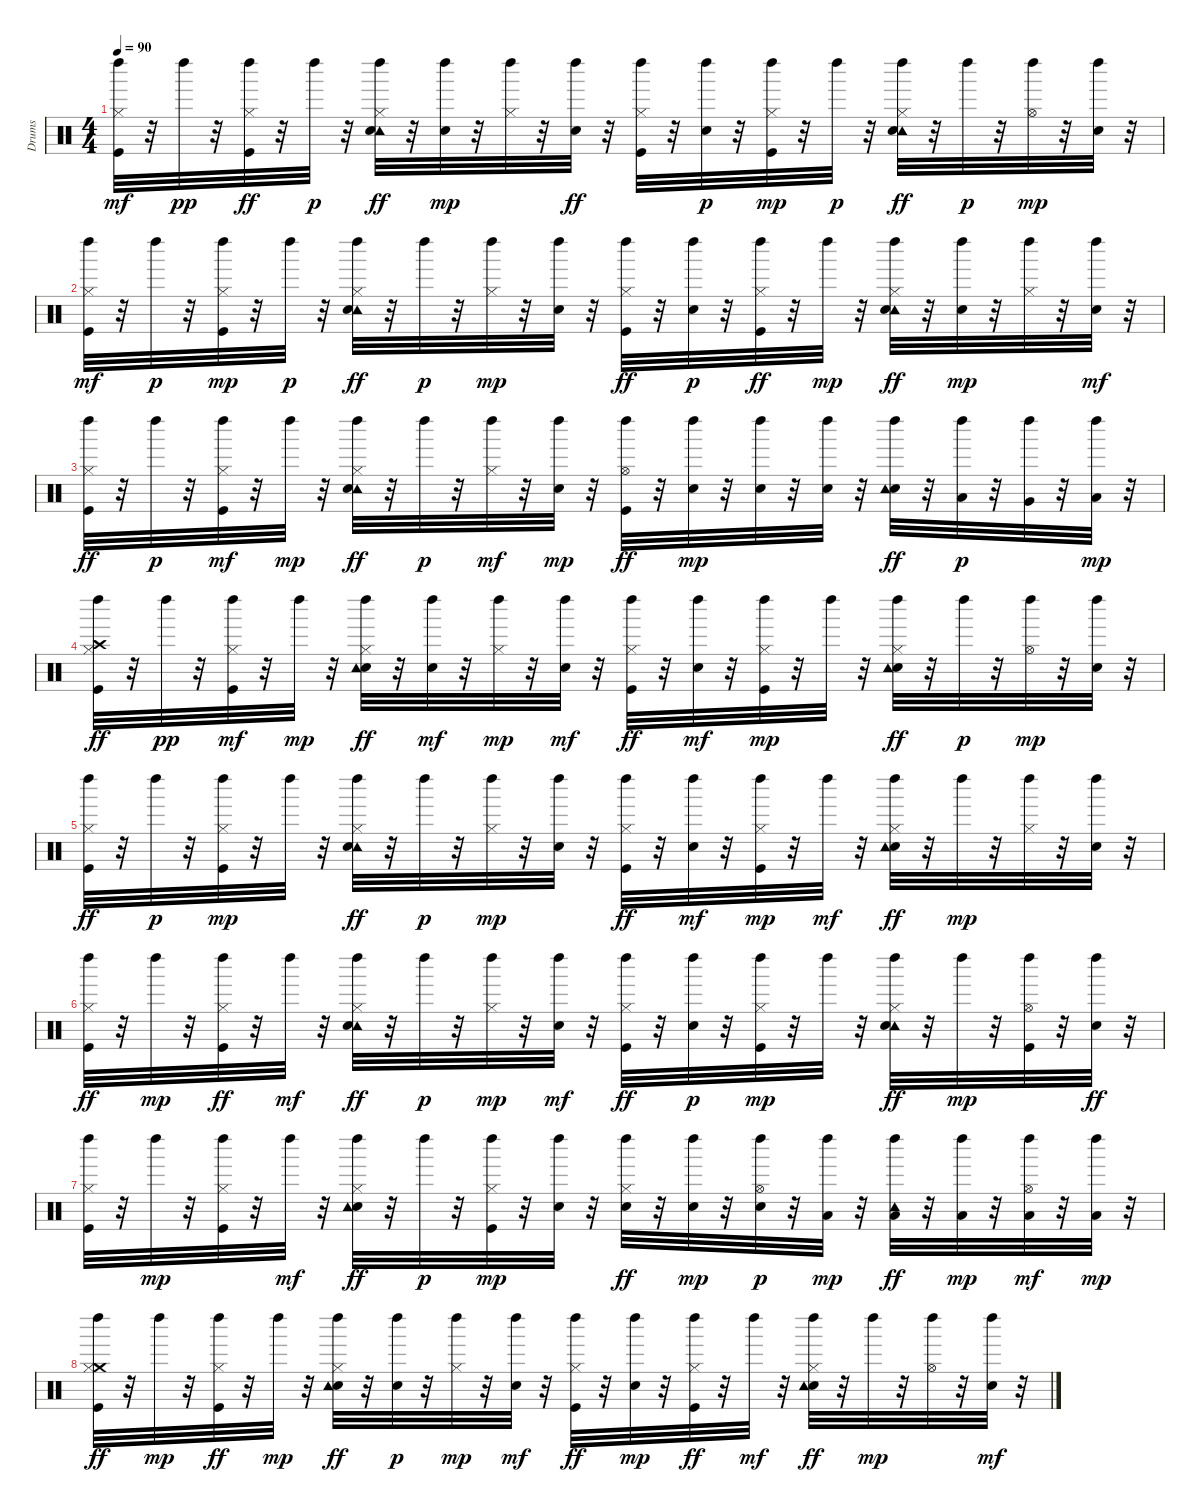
\track ("Drums" "Drums") {instrument percussion}
\staff {score}
\articulation defaults
\ts (4 4)
\tempo 90
\clef neutral
\ks c
("Kick (hit)" "Left Maraca (hit)" "Hi-Hat (closed)").32{dy mf} r.32 "Left Maraca (hit)".32{dy pp} r.32 ("Hi-Hat (closed)" "Left Maraca (hit)" "Kick (hit)").32{dy ff} r.32 "Left Maraca (hit)".32{dy p} r.32 ("Tambourine (hit)" "Left Maraca (hit)" "Hi-Hat (closed)" "Electric Snare (hit)").32{dy ff} r.32 ("Left Maraca (hit)" "Electric Snare (hit)").32{dy mp} r.32 ("Hi-Hat (closed)" "Left Maraca (hit)").32 r.32 ("Left Maraca (hit)" "Electric Snare (hit)").32{dy ff} r.32 ("Hi-Hat (closed)" "Left Maraca (hit)" "Kick (hit)").32 r.32 ("Left Maraca (hit)" "Electric Snare (hit)").32{dy p} r.32 ("Hi-Hat (closed)" "Kick (hit)" "Left Maraca (hit)").32{dy mp} r.32 "Left Maraca (hit)".32{dy p} r.32 ("Tambourine (hit)" "Electric Snare (hit)" "Left Maraca (hit)" "Hi-Hat (closed)").32{dy ff} r.32 "Left Maraca (hit)".32{dy p} r.32 ("Hi-Hat (open)" "Left Maraca (hit)").32{dy mp} r.32 ("Electric Snare (hit)" "Left Maraca (hit)").32 r.32 |
("Kick (hit)" "Hi-Hat (closed)" "Left Maraca (hit)").32{dy mf} r.32 "Left Maraca (hit)".32{dy p} r.32 ("Hi-Hat (closed)" "Kick (hit)" "Left Maraca (hit)").32{dy mp} r.32 "Left Maraca (hit)".32{dy p} r.32 ("Tambourine (hit)" "Hi-Hat (closed)" "Electric Snare (hit)" "Left Maraca (hit)").32{dy ff} r.32 "Left Maraca (hit)".32{dy p} r.32 ("Hi-Hat (closed)" "Left Maraca (hit)").32{dy mp} r.32 ("Electric Snare (hit)" "Left Maraca (hit)").32 r.32 ("Kick (hit)" "Hi-Hat (closed)" "Left Maraca (hit)").32{dy ff} r.32 ("Left Maraca (hit)" "Electric Snare (hit)").32{dy p} r.32 ("Left Maraca (hit)" "Hi-Hat (closed)" "Kick (hit)").32{dy ff} r.32 "Left Maraca (hit)".32{dy mp} r.32 ("Tambourine (hit)" "Left Maraca (hit)" "Hi-Hat (closed)" "Electric Snare (hit)").32{dy ff} r.32 ("Left Maraca (hit)" "Electric Snare (hit)").32{dy mp} r.32 ("Hi-Hat (closed)" "Left Maraca (hit)").32 r.32 ("Electric Snare (hit)" "Left Maraca (hit)").32{dy mf} r.32 |
("Hi-Hat (closed)" "Kick (hit)" "Left Maraca (hit)").32{dy ff} r.32 "Left Maraca (hit)".32{dy p} r.32 ("Hi-Hat (closed)" "Kick (hit)" "Left Maraca (hit)").32{dy mf} r.32 "Left Maraca (hit)".32{dy mp} r.32 ("Tambourine (hit)" "Hi-Hat (closed)" "Electric Snare (hit)" "Left Maraca (hit)").32{dy ff} r.32 "Left Maraca (hit)".32{dy p} r.32 ("Hi-Hat (closed)" "Left Maraca (hit)").32{dy mf} r.32 ("Electric Snare (hit)" "Left Maraca (hit)").32{dy mp} r.32 ("Hi-Hat (open)" "Kick (hit)" "Left Maraca (hit)").32{dy ff} r.32 ("Electric Snare (hit)" "Left Maraca (hit)").32{dy mp} r.32 ("Electric Snare (hit)" "Left Maraca (hit)").32 r.32 ("Left Maraca (hit)" "Electric Snare (hit)").32 r.32 ("Electric Snare (hit)" "Tambourine (hit)" "Left Maraca (hit)").32{dy ff} r.32 ("Low Tom (hit)" "Left Maraca (hit)").32{dy p} r.32 ("Very Low Tom (hit)" "Left Maraca (hit)").32 r.32 ("Low Floor Tom (hit)" "Left Maraca (hit)").32{dy mp} r.32 |
("Left Maraca (hit)" "Kick (hit)" "Crash high (hit)" "Hi-Hat (closed)").32{dy ff} r.32 "Left Maraca (hit)".32{dy pp} r.32 ("Kick (hit)" "Left Maraca (hit)" "Hi-Hat (closed)").32{dy mf} r.32 "Left Maraca (hit)".32{dy mp} r.32 ("Electric Snare (hit)" "Left Maraca (hit)" "Hi-Hat (closed)" "Tambourine (hit)").32{dy ff} r.32 ("Left Maraca (hit)" "Electric Snare (hit)").32{dy mf} r.32 ("Hi-Hat (closed)" "Left Maraca (hit)").32{dy mp} r.32 ("Electric Snare (hit)" "Left Maraca (hit)").32{dy mf} r.32 ("Hi-Hat (closed)" "Kick (hit)" "Left Maraca (hit)").32{dy ff} r.32 ("Left Maraca (hit)" "Electric Snare (hit)").32{dy mf} r.32 ("Hi-Hat (closed)" "Kick (hit)" "Left Maraca (hit)").32{dy mp} r.32 "Left Maraca (hit)".32 r.32 ("Left Maraca (hit)" "Hi-Hat (closed)" "Electric Snare (hit)" "Tambourine (hit)").32{dy ff} r.32 "Left Maraca (hit)".32{dy p} r.32 ("Hi-Hat (open)" "Left Maraca (hit)").32{dy mp} r.32 ("Electric Snare (hit)" "Left Maraca (hit)").32 r.32 |
("Hi-Hat (closed)" "Kick (hit)" "Left Maraca (hit)").32{dy ff} r.32 "Left Maraca (hit)".32{dy p} r.32 ("Hi-Hat (closed)" "Kick (hit)" "Left Maraca (hit)").32{dy mp} r.32 "Left Maraca (hit)".32 r.32 ("Tambourine (hit)" "Hi-Hat (closed)" "Electric Snare (hit)" "Left Maraca (hit)").32{dy ff} r.32 "Left Maraca (hit)".32{dy p} r.32 ("Hi-Hat (closed)" "Left Maraca (hit)").32{dy mp} r.32 ("Electric Snare (hit)" "Left Maraca (hit)").32 r.32 ("Hi-Hat (closed)" "Kick (hit)" "Left Maraca (hit)").32{dy ff} r.32 ("Left Maraca (hit)" "Electric Snare (hit)").32{dy mf} r.32 ("Hi-Hat (closed)" "Kick (hit)" "Left Maraca (hit)").32{dy mp} r.32 "Left Maraca (hit)".32{dy mf} r.32 ("Hi-Hat (closed)" "Electric Snare (hit)" "Tambourine (hit)" "Left Maraca (hit)").32{dy ff} r.32 "Left Maraca (hit)".32{dy mp} r.32 ("Hi-Hat (closed)" "Left Maraca (hit)").32 r.32 ("Left Maraca (hit)" "Electric Snare (hit)").32 r.32 |
("Kick (hit)" "Left Maraca (hit)" "Hi-Hat (closed)").32{dy ff} r.32 "Left Maraca (hit)".32{dy mp} r.32 ("Left Maraca (hit)" "Hi-Hat (closed)" "Kick (hit)").32{dy ff} r.32 "Left Maraca (hit)".32{dy mf} r.32 ("Tambourine (hit)" "Left Maraca (hit)" "Hi-Hat (closed)" "Electric Snare (hit)").32{dy ff} r.32 "Left Maraca (hit)".32{dy p} r.32 ("Hi-Hat (closed)" "Left Maraca (hit)").32{dy mp} r.32 ("Electric Snare (hit)" "Left Maraca (hit)").32{dy mf} r.32 ("Hi-Hat (closed)" "Kick (hit)" "Left Maraca (hit)").32{dy ff} r.32 ("Electric Snare (hit)" "Left Maraca (hit)").32{dy p} r.32 ("Kick (hit)" "Left Maraca (hit)" "Hi-Hat (closed)").32{dy mp} r.32 "Left Maraca (hit)".32 r.32 ("Hi-Hat (closed)" "Tambourine (hit)" "Left Maraca (hit)" "Electric Snare (hit)").32{dy ff} r.32 "Left Maraca (hit)".32{dy mp} r.32 ("Hi-Hat (open)" "Kick (hit)" "Left Maraca (hit)").32 r.32 ("Left Maraca (hit)" "Electric Snare (hit)").32{dy ff} r.32 |
("Hi-Hat (closed)" "Left Maraca (hit)" "Kick (hit)").32 r.32 "Left Maraca (hit)".32{dy mp} r.32 ("Hi-Hat (closed)" "Kick (hit)" "Left Maraca (hit)").32 r.32 "Left Maraca (hit)".32{dy mf} r.32 ("Hi-Hat (closed)" "Electric Snare (hit)" "Tambourine (hit)" "Left Maraca (hit)").32{dy ff} r.32 "Left Maraca (hit)".32{dy p} r.32 ("Hi-Hat (closed)" "Kick (hit)" "Left Maraca (hit)").32{dy mp} r.32 ("Electric Snare (hit)" "Left Maraca (hit)").32 r.32 ("Left Maraca (hit)" "Hi-Hat (closed)" "Electric Snare (hit)").32{dy ff} r.32 ("Electric Snare (hit)" "Left Maraca (hit)").32{dy mp} r.32 ("Electric Snare (hit)" "Left Maraca (hit)" "Hi-Hat (open)").32{dy p} r.32 ("Low Floor Tom (hit)" "Left Maraca (hit)").32{dy mp} r.32 ("Low Floor Tom (hit)" "Tambourine (hit)" "Left Maraca (hit)").32{dy ff} r.32 ("Low Tom (hit)" "Left Maraca (hit)").32{dy mp} r.32 ("Low Floor Tom (hit)" "Left Maraca (hit)" "Hi-Hat (open)").32{dy mf} r.32 ("Low Tom (hit)" "Left Maraca (hit)").32{dy mp} r.32 |
("Kick (hit)" "Left Maraca (hit)" "Crash medium (hit)" "Hi-Hat (closed)").32{dy ff} r.32 "Left Maraca (hit)".32{dy mp} r.32 ("Left Maraca (hit)" "Hi-Hat (closed)" "Kick (hit)").32{dy ff} r.32 "Left Maraca (hit)".32{dy mp} r.32 ("Left Maraca (hit)" "Hi-Hat (closed)" "Electric Snare (hit)" "Tambourine (hit)").32{dy ff} r.32 ("Electric Snare (hit)" "Left Maraca (hit)").32{dy p} r.32 ("Hi-Hat (closed)" "Left Maraca (hit)").32{dy mp} r.32 ("Electric Snare (hit)" "Left Maraca (hit)").32{dy mf} r.32 ("Hi-Hat (closed)" "Left Maraca (hit)" "Kick (hit)").32{dy ff} r.32 ("Electric Snare (hit)" "Left Maraca (hit)").32{dy mp} r.32 ("Hi-Hat (closed)" "Left Maraca (hit)" "Kick (hit)").32{dy ff} r.32 "Left Maraca (hit)".32{dy mf} r.32 ("Hi-Hat (closed)" "Electric Snare (hit)" "Tambourine (hit)" "Left Maraca (hit)").32{dy ff} r.32 "Left Maraca (hit)".32{dy mp} r.32 ("Hi-Hat (open)" "Left Maraca (hit)").32 r.32 ("Electric Snare (hit)" "Left Maraca (hit)").32{dy mf} r.32
